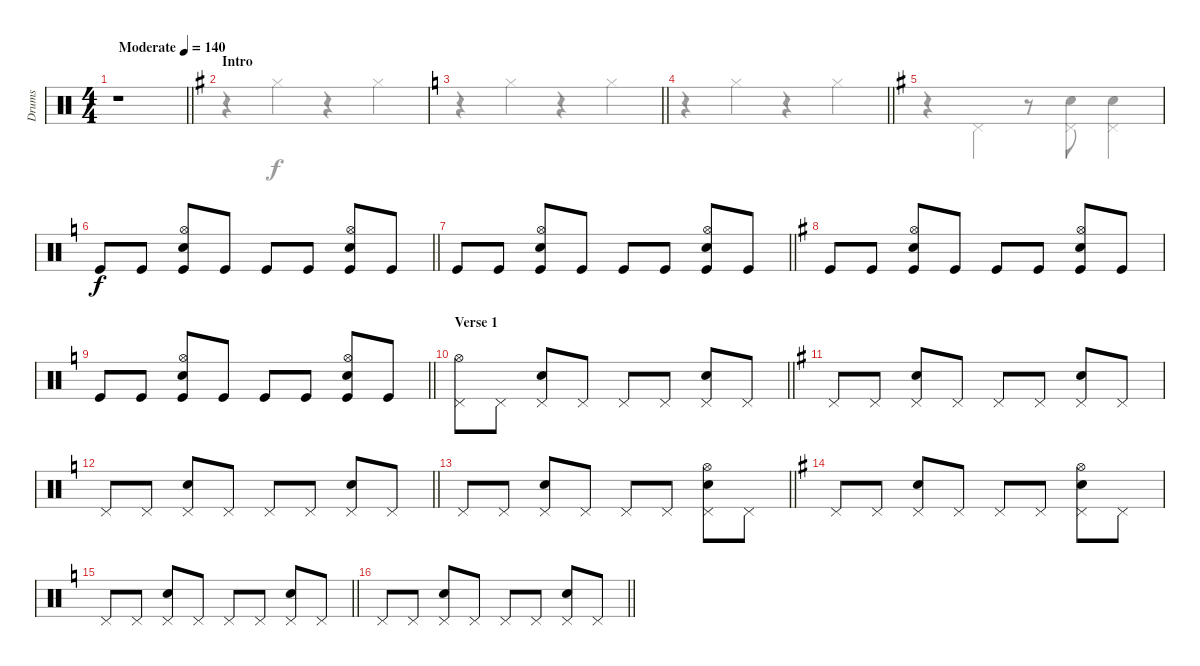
\track ("Drums" "Drums") {instrument percussion}
\staff {score}
\articulation defaults
\voice
\ts (4 4)
\tempo (140 "Moderate")
\clef neutral
\barLineRight lightlight
\ks c
r.1{dy f} |
\section ("" "Intro")
\ks g
|
\barLineRight lightlight
\ks c
|
\barLineRight lightlight
|
\ks g
|
\barLineRight lightlight
\ks c "Kick (hit)".8 "Kick (hit)".8
("Hi-Hat (open)" "Snare (hit) 2" "Kick (hit)").8 "Kick (hit)".8 "Kick (hit)".8 "Kick (hit)".8 ("Hi-Hat (open)" "Snare (hit) 2" "Kick (hit)").8 "Kick (hit)".8 |
\barLineRight lightlight "Kick (hit)".8 "Kick (hit)".8
("Hi-Hat (open)" "Snare (hit) 2" "Kick (hit)").8 "Kick (hit)".8 "Kick (hit)".8 "Kick (hit)".8 ("Hi-Hat (open)" "Snare (hit) 2" "Kick (hit)").8 "Kick (hit)".8 |
\ks g "Kick (hit)".8 "Kick (hit)".8
("Hi-Hat (open)" "Snare (hit) 2" "Kick (hit)").8 "Kick (hit)".8 "Kick (hit)".8 "Kick (hit)".8 ("Hi-Hat (open)" "Snare (hit) 2" "Kick (hit)").8 "Kick (hit)".8 |
\barLineRight lightlight
\ks c "Kick (hit)".8 "Kick (hit)".8
("Hi-Hat (open)" "Snare (hit) 2" "Kick (hit)").8 "Kick (hit)".8 "Kick (hit)".8 "Kick (hit)".8 ("Hi-Hat (open)" "Snare (hit) 2" "Kick (hit)").8 "Kick (hit)".8 |
\section ("" "Verse 1")
\barLineRight lightlight
("Pedal Hi-Hat (hit)" "Hi-Hat (open)").8 "Pedal Hi-Hat (hit)".8 ("Pedal Hi-Hat (hit)" "Snare (hit) 2").8 "Pedal Hi-Hat (hit)".8 "Pedal Hi-Hat (hit)".8 "Pedal Hi-Hat (hit)".8 ("Pedal Hi-Hat (hit)" "Snare (hit) 2").8 "Pedal Hi-Hat (hit)".8 |
\ks g "Pedal Hi-Hat (hit)".8 "Pedal Hi-Hat (hit)".8
("Pedal Hi-Hat (hit)" "Snare (hit) 2").8 "Pedal Hi-Hat (hit)".8 "Pedal Hi-Hat (hit)".8 "Pedal Hi-Hat (hit)".8 ("Pedal Hi-Hat (hit)" "Snare (hit) 2").8 "Pedal Hi-Hat (hit)".8 |
\barLineRight lightlight
\ks c "Pedal Hi-Hat (hit)".8 "Pedal Hi-Hat (hit)".8
("Pedal Hi-Hat (hit)" "Snare (hit) 2").8 "Pedal Hi-Hat (hit)".8 "Pedal Hi-Hat (hit)".8 "Pedal Hi-Hat (hit)".8 ("Pedal Hi-Hat (hit)" "Snare (hit) 2").8 "Pedal Hi-Hat (hit)".8 |
\barLineRight lightlight "Pedal Hi-Hat (hit)".8 "Pedal Hi-Hat (hit)".8
("Pedal Hi-Hat (hit)" "Snare (hit) 2").8 "Pedal Hi-Hat (hit)".8 "Pedal Hi-Hat (hit)".8 "Pedal Hi-Hat (hit)".8 ("Pedal Hi-Hat (hit)" "Hi-Hat (open)" "Snare (hit) 2").8 "Pedal Hi-Hat (hit)".8 |
\ks g "Pedal Hi-Hat (hit)".8 "Pedal Hi-Hat (hit)".8
("Pedal Hi-Hat (hit)" "Snare (hit) 2").8 "Pedal Hi-Hat (hit)".8 "Pedal Hi-Hat (hit)".8 "Pedal Hi-Hat (hit)".8 ("Pedal Hi-Hat (hit)" "Hi-Hat (open)" "Snare (hit) 2").8 "Pedal Hi-Hat (hit)".8 |
\barLineRight lightlight
\ks c "Pedal Hi-Hat (hit)".8 "Pedal Hi-Hat (hit)".8
("Pedal Hi-Hat (hit)" "Snare (hit) 2").8 "Pedal Hi-Hat (hit)".8 "Pedal Hi-Hat (hit)".8 "Pedal Hi-Hat (hit)".8 ("Pedal Hi-Hat (hit)" "Snare (hit) 2").8 "Pedal Hi-Hat (hit)".8 |
\barLineRight lightlight "Pedal Hi-Hat (hit)".8 "Pedal Hi-Hat (hit)".8
("Pedal Hi-Hat (hit)" "Snare (hit) 2").8 "Pedal Hi-Hat (hit)".8 "Pedal Hi-Hat (hit)".8 "Pedal Hi-Hat (hit)".8 ("Pedal Hi-Hat (hit)" "Snare (hit) 2").8 "Pedal Hi-Hat (hit)".8
\voice
\clef neutral
\ottava regular
\simile none
\barLineRight lightlight
\ks c
|
\ks g
r.4 "Hi-Hat (closed)".4 r.4 "Hi-Hat (closed)".4 |
\barLineRight lightlight
\ks c
r.4 "Hi-Hat (closed)".4 r.4 "Hi-Hat (closed)".4 |
\barLineRight lightlight
r.4 "Hi-Hat (closed)".4 r.4 "Hi-Hat (closed)".4 |
\ks g
r.4 "Pedal Hi-Hat (hit)".4 r.8 ("Pedal Hi-Hat (hit)" "Snare (hit) 2").8 ("Pedal Hi-Hat (hit)" "Snare (hit) 2").4 |
\barLineRight lightlight
\ks c
|
\barLineRight lightlight
|
\ks g
|
\barLineRight lightlight
\ks c
|
\barLineRight lightlight
|
\ks g
|
\barLineRight lightlight
\ks c
|
\barLineRight lightlight
|
\ks g
|
\barLineRight lightlight
\ks c
|
\barLineRight lightlight
